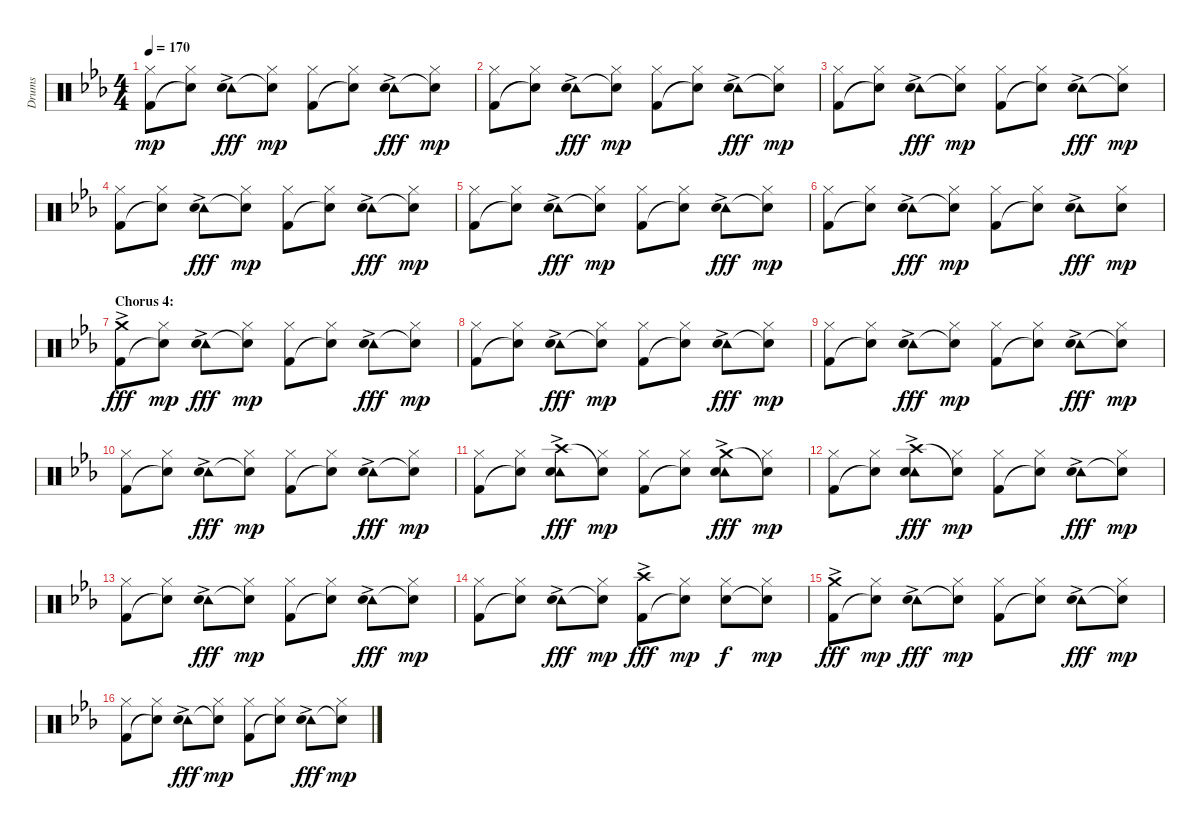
\track ("Drums" "Drums") {instrument percussion}
\staff {score}
\articulation defaults
\ts (4 4)
\tempo 170
\clef neutral
\ks cminor
("Hi-Hat (closed)" "Kick (hit) 2").8{dy mp} ("Hi-Hat (closed)" "Snare (hit)"{t}).8 ("Tambourine (hit)"{ac} "Hand Clap (hit)").8{dy fff} ("Hi-Hat (closed)" "Snare (hit)"{t}).8{dy mp} ("Hi-Hat (closed)" "Kick (hit) 2").8 ("Hi-Hat (closed)" "Snare (hit)"{t}).8 ("Tambourine (hit)"{ac} "Hand Clap (hit)").8{dy fff} ("Hi-Hat (closed)" "Snare (hit)"{t}).8{dy mp} |
("Hi-Hat (closed)" "Kick (hit) 2").8 ("Hi-Hat (closed)" "Snare (hit)"{t}).8 ("Tambourine (hit)"{ac} "Hand Clap (hit)").8{dy fff} ("Hi-Hat (closed)" "Snare (hit)"{t}).8{dy mp} ("Hi-Hat (closed)" "Kick (hit) 2").8 ("Hi-Hat (closed)" "Snare (hit)"{t}).8 ("Tambourine (hit)"{ac} "Hand Clap (hit)").8{dy fff} ("Hi-Hat (closed)" "Snare (hit)"{t}).8{dy mp} |
("Hi-Hat (closed)" "Kick (hit) 2").8 ("Hi-Hat (closed)" "Snare (hit)"{t}).8 ("Tambourine (hit)"{ac} "Hand Clap (hit)").8{dy fff} ("Hi-Hat (closed)" "Snare (hit)"{t}).8{dy mp} ("Hi-Hat (closed)" "Kick (hit) 2").8 ("Hi-Hat (closed)" "Snare (hit)"{t}).8 ("Tambourine (hit)"{ac} "Hand Clap (hit)").8{dy fff} ("Hi-Hat (closed)" "Snare (hit)"{t}).8{dy mp} |
("Hi-Hat (closed)" "Kick (hit) 2").8 ("Hi-Hat (closed)" "Snare (hit)"{t}).8 ("Tambourine (hit)"{ac} "Hand Clap (hit)").8{dy fff} ("Hi-Hat (closed)" "Snare (hit)"{t}).8{dy mp} ("Hi-Hat (closed)" "Kick (hit) 2").8 ("Hi-Hat (closed)" "Snare (hit)"{t}).8 ("Tambourine (hit)"{ac} "Hand Clap (hit)").8{dy fff} ("Hi-Hat (closed)" "Snare (hit)"{t}).8{dy mp} |
("Hi-Hat (closed)" "Kick (hit) 2").8 ("Hi-Hat (closed)" "Snare (hit)"{t}).8 ("Tambourine (hit)"{ac} "Hand Clap (hit)").8{dy fff} ("Hi-Hat (closed)" "Snare (hit)"{t}).8{dy mp} ("Hi-Hat (closed)" "Kick (hit) 2").8 ("Hi-Hat (closed)" "Snare (hit)"{t}).8 ("Tambourine (hit)"{ac} "Hand Clap (hit)").8{dy fff} ("Hi-Hat (closed)" "Snare (hit)"{t}).8{dy mp} |
("Hi-Hat (closed)" "Kick (hit) 2").8 ("Hi-Hat (closed)" "Snare (hit)"{t}).8 ("Tambourine (hit)"{ac} "Hand Clap (hit)").8{dy fff} ("Hi-Hat (closed)" "Snare (hit)"{t}).8{dy mp} ("Hi-Hat (closed)" "Kick (hit) 2").8 ("Hi-Hat (closed)" "Snare (hit)"{t}).8 ("Tambourine (hit)"{ac} "Snare (hit) 2").8{dy fff} ("Hi-Hat (closed)" "Snare (hit) 2").8{dy mp} |
\section ("" "Chorus 4:")
("Crash medium (hit)"{ac} "Kick (hit) 2").8{dy fff} ("Hi-Hat (closed)" "Snare (hit)"{t}).8{dy mp} ("Tambourine (hit)"{ac} "Hand Clap (hit)").8{dy fff} ("Hi-Hat (closed)" "Snare (hit)"{t}).8{dy mp} ("Hi-Hat (closed)" "Kick (hit) 2").8 ("Hi-Hat (closed)" "Snare (hit)"{t}).8 ("Tambourine (hit)"{ac} "Hand Clap (hit)").8{dy fff} ("Hi-Hat (closed)" "Snare (hit)"{t}).8{dy mp} |
("Hi-Hat (closed)" "Kick (hit) 2").8 ("Hi-Hat (closed)" "Snare (hit)"{t}).8 ("Tambourine (hit)"{ac} "Hand Clap (hit)").8{dy fff} ("Hi-Hat (closed)" "Snare (hit)"{t}).8{dy mp} ("Hi-Hat (closed)" "Kick (hit) 2").8 ("Hi-Hat (closed)" "Snare (hit)"{t}).8 ("Tambourine (hit)"{ac} "Hand Clap (hit)").8{dy fff} ("Hi-Hat (closed)" "Snare (hit)"{t}).8{dy mp} |
("Hi-Hat (closed)" "Kick (hit) 2").8 ("Hi-Hat (closed)" "Snare (hit)"{t}).8 ("Tambourine (hit)"{ac} "Hand Clap (hit)").8{dy fff} ("Hi-Hat (closed)" "Snare (hit)"{t}).8{dy mp} ("Hi-Hat (closed)" "Kick (hit) 2").8 ("Hi-Hat (closed)" "Snare (hit)"{t}).8 ("Tambourine (hit)"{ac} "Hand Clap (hit)").8{dy fff} ("Hi-Hat (closed)" "Snare (hit)"{t}).8{dy mp} |
("Hi-Hat (closed)" "Kick (hit) 2").8 ("Hi-Hat (closed)" "Snare (hit)"{t}).8 ("Tambourine (hit)"{ac} "Hand Clap (hit)").8{dy fff} ("Hi-Hat (closed)" "Snare (hit)"{t}).8{dy mp} ("Hi-Hat (closed)" "Kick (hit) 2").8 ("Hi-Hat (closed)" "Snare (hit)"{t}).8 ("Tambourine (hit)"{ac} "Hand Clap (hit)").8{dy fff} ("Hi-Hat (closed)" "Snare (hit)"{t}).8{dy mp} |
("Hi-Hat (closed)" "Kick (hit) 2").8 ("Hi-Hat (closed)" "Snare (hit)"{t}).8 ("Tambourine (hit)"{ac} "Crash high (hit)"{ac} "Hand Clap (hit)").8{dy fff} ("Hi-Hat (closed)" "Snare (hit)"{t}).8{dy mp} ("Hi-Hat (closed)" "Kick (hit) 2").8 ("Hi-Hat (closed)" "Snare (hit)"{t}).8 ("Tambourine (hit)"{ac} "Crash medium (hit)"{ac} "Hand Clap (hit)").8{dy fff} ("Hi-Hat (closed)" "Snare (hit)"{t}).8{dy mp} |
("Hi-Hat (closed)" "Kick (hit) 2").8 ("Hi-Hat (closed)" "Snare (hit)"{t}).8 ("Tambourine (hit)"{ac} "Crash high (hit)"{ac} "Hand Clap (hit)").8{dy fff} ("Hi-Hat (closed)" "Snare (hit)"{t}).8{dy mp} ("Hi-Hat (closed)" "Kick (hit) 2").8 ("Hi-Hat (closed)" "Snare (hit)"{t}).8 ("Tambourine (hit)"{ac} "Hand Clap (hit)").8{dy fff} ("Hi-Hat (closed)" "Snare (hit)"{t}).8{dy mp} |
("Hi-Hat (closed)" "Kick (hit) 2").8 ("Hi-Hat (closed)" "Snare (hit)"{t}).8 ("Tambourine (hit)"{ac} "Hand Clap (hit)").8{dy fff} ("Hi-Hat (closed)" "Snare (hit)"{t}).8{dy mp} ("Hi-Hat (closed)" "Kick (hit) 2").8 ("Hi-Hat (closed)" "Snare (hit)"{t}).8 ("Tambourine (hit)"{ac} "Hand Clap (hit)").8{dy fff} ("Hi-Hat (closed)" "Snare (hit)"{t}).8{dy mp} |
("Hi-Hat (closed)" "Kick (hit) 2").8 ("Hi-Hat (closed)" "Snare (hit)"{t}).8 ("Tambourine (hit)"{ac} "Hand Clap (hit)").8{dy fff} ("Hi-Hat (closed)" "Snare (hit)"{t}).8{dy mp} ("Crash high (hit)"{ac} "Kick (hit) 2").8{dy fff} ("Hi-Hat (closed)" "Snare (hit)"{t}).8{dy mp} ("Hi-Hat (closed)" "Hand Clap (hit)").8{dy f} ("Hi-Hat (closed)" "Snare (hit)"{t}).8{dy mp} |
("Crash medium (hit)"{ac} "Kick (hit) 2").8{dy fff} ("Hi-Hat (closed)" "Snare (hit)"{t}).8{dy mp} ("Tambourine (hit)"{ac} "Hand Clap (hit)").8{dy fff} ("Hi-Hat (closed)" "Snare (hit)"{t}).8{dy mp} ("Hi-Hat (closed)" "Kick (hit) 2").8 ("Hi-Hat (closed)" "Snare (hit)"{t}).8 ("Tambourine (hit)"{ac} "Hand Clap (hit)").8{dy fff} ("Hi-Hat (closed)" "Snare (hit)"{t}).8{dy mp} |
("Hi-Hat (closed)" "Kick (hit) 2").8 ("Hi-Hat (closed)" "Snare (hit)"{t}).8 ("Tambourine (hit)"{ac} "Hand Clap (hit)").8{dy fff} ("Hi-Hat (closed)" "Snare (hit)"{t}).8{dy mp} ("Hi-Hat (closed)" "Kick (hit) 2").8 ("Hi-Hat (closed)" "Snare (hit)"{t}).8 ("Tambourine (hit)"{ac} "Hand Clap (hit)").8{dy fff} ("Hi-Hat (closed)" "Snare (hit)"{t}).8{dy mp}
